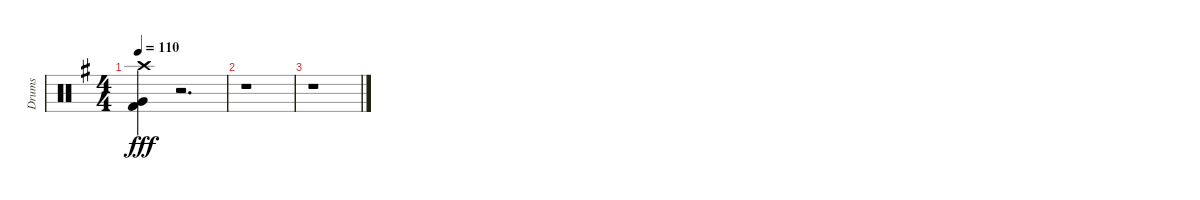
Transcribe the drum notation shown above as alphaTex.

\track ("Drums" "Drums") {instrument percussion}
\staff {score}
\articulation defaults
\ts (4 4)
\tempo 110
\clef neutral
\ks g
("Crash high (hit)" "Very Low Tom (hit)" "Kick (hit) 2").4{dy fff} r.2{d} |
r.1 |
r.1
